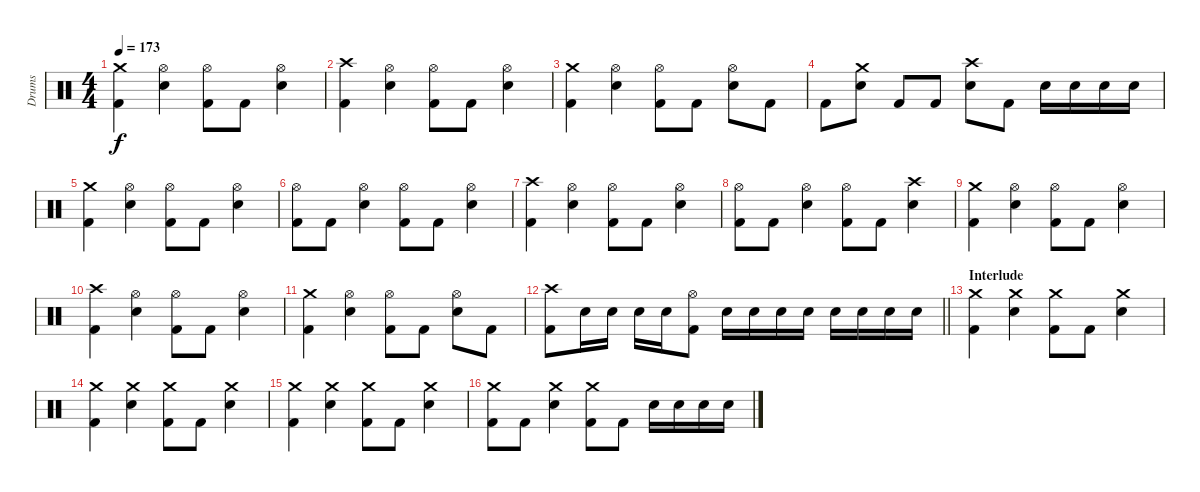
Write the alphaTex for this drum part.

\track ("Drums" "Drums") {instrument percussion}
\staff {score}
\articulation defaults
\ts (4 4)
\tempo 173
\clef neutral
\ks c
("Crash medium (hit)" "Kick (hit) 2").4{dy f} ("Hi-Hat (open)" "Electric Snare (hit)").4 ("Hi-Hat (open)" "Kick (hit) 2").8 "Kick (hit) 2".8 ("Hi-Hat (open)" "Electric Snare (hit)").4 |
("Crash high (hit)" "Kick (hit) 2").4 ("Hi-Hat (open)" "Electric Snare (hit)").4 ("Hi-Hat (open)" "Kick (hit) 2").8 "Kick (hit) 2".8 ("Hi-Hat (open)" "Electric Snare (hit)").4 |
("Crash medium (hit)" "Kick (hit) 2").4 ("Hi-Hat (open)" "Electric Snare (hit)").4 ("Hi-Hat (open)" "Kick (hit) 2").8 "Kick (hit) 2".8 ("Hi-Hat (open)" "Electric Snare (hit)").8 "Kick (hit) 2".8 |
"Kick (hit) 2".8 ("Crash medium (hit)" "Electric Snare (hit)").8 "Kick (hit) 2".8 "Kick (hit) 2".8 ("Crash high (hit)" "Electric Snare (hit)").8 "Kick (hit) 2".8 "Electric Snare (hit)".16 "Electric Snare (hit)".16 "Electric Snare (hit)".16 "Electric Snare (hit)".16 |
("Crash medium (hit)" "Kick (hit) 2").4 ("Hi-Hat (open)" "Electric Snare (hit)").4 ("Hi-Hat (open)" "Kick (hit) 2").8 "Kick (hit) 2".8 ("Hi-Hat (open)" "Electric Snare (hit)").4 |
("Hi-Hat (open)" "Kick (hit) 2").8 "Kick (hit) 2".8 ("Hi-Hat (open)" "Electric Snare (hit)").4 ("Hi-Hat (open)" "Kick (hit) 2").8 "Kick (hit) 2".8 ("Hi-Hat (open)" "Electric Snare (hit)").4 |
("Crash high (hit)" "Kick (hit) 2").4 ("Hi-Hat (open)" "Electric Snare (hit)").4 ("Hi-Hat (open)" "Kick (hit) 2").8 "Kick (hit) 2".8 ("Hi-Hat (open)" "Electric Snare (hit)").4 |
("Hi-Hat (open)" "Kick (hit) 2").8 "Kick (hit) 2".8 ("Hi-Hat (open)" "Electric Snare (hit)").4 ("Hi-Hat (open)" "Kick (hit) 2").8 "Kick (hit) 2".8 ("Crash high (hit)" "Electric Snare (hit)").4 |
("Crash medium (hit)" "Kick (hit) 2").4 ("Hi-Hat (open)" "Electric Snare (hit)").4 ("Hi-Hat (open)" "Kick (hit) 2").8 "Kick (hit) 2".8 ("Hi-Hat (open)" "Electric Snare (hit)").4 |
("Crash high (hit)" "Kick (hit) 2").4 ("Hi-Hat (open)" "Electric Snare (hit)").4 ("Hi-Hat (open)" "Kick (hit) 2").8 "Kick (hit) 2".8 ("Hi-Hat (open)" "Electric Snare (hit)").4 |
("Crash medium (hit)" "Kick (hit) 2").4 ("Hi-Hat (open)" "Electric Snare (hit)").4 ("Hi-Hat (open)" "Kick (hit) 2").8 "Kick (hit) 2".8 ("Hi-Hat (open)" "Electric Snare (hit)").8 "Kick (hit) 2".8 |
\barLineRight lightlight
("Crash high (hit)" "Kick (hit) 2").8 "Electric Snare (hit)".16 "Electric Snare (hit)".16 "Electric Snare (hit)".16 "Electric Snare (hit)".16 ("Hi-Hat (open)" "Kick (hit) 2").8 "Electric Snare (hit)".16 "Electric Snare (hit)".16 "Electric Snare (hit)".16 "Electric Snare (hit)".16 "Electric Snare (hit)".16 "Electric Snare (hit)".16 "Electric Snare (hit)".16 "Electric Snare (hit)".16 |
\section ("" "Interlude")
("Crash medium (hit)" "Kick (hit) 2").4 ("Crash medium (hit)" "Electric Snare (hit)").4 ("Crash medium (hit)" "Kick (hit) 2").8 "Kick (hit) 2".8 ("Crash medium (hit)" "Electric Snare (hit)").4 |
("Crash medium (hit)" "Kick (hit) 2").4 ("Crash medium (hit)" "Electric Snare (hit)").4 ("Crash medium (hit)" "Kick (hit) 2").8 "Kick (hit) 2".8 ("Crash medium (hit)" "Electric Snare (hit)").4 |
("Crash medium (hit)" "Kick (hit) 2").4 ("Crash medium (hit)" "Electric Snare (hit)").4 ("Crash medium (hit)" "Kick (hit) 2").8 "Kick (hit) 2".8 ("Crash medium (hit)" "Electric Snare (hit)").4 |
("Crash medium (hit)" "Kick (hit) 2").8 "Kick (hit) 2".8 ("Crash medium (hit)" "Electric Snare (hit)").4 ("Crash medium (hit)" "Kick (hit) 2").8 "Kick (hit) 2".8 "Electric Snare (hit)".16 "Electric Snare (hit)".16 "Electric Snare (hit)".16 "Electric Snare (hit)".16
